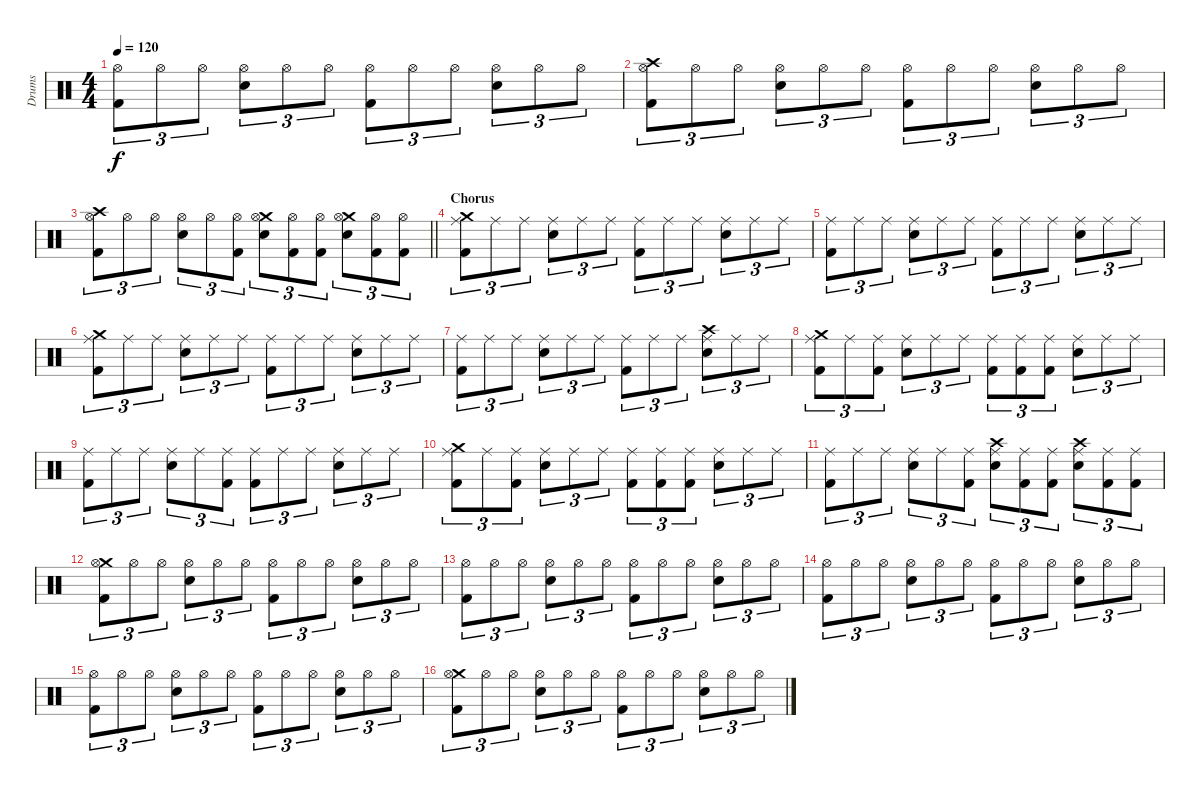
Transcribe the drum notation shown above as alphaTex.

\track ("Drums" "Drums") {instrument percussion}
\staff {score}
\articulation defaults
\ts (4 4)
\tempo 120
\clef neutral
\ks c
("Hi-Hat (open)" "Kick (hit) 2").8{tu (3 2) dy f} "Hi-Hat (open)".8{tu (3 2)} "Hi-Hat (open)".8{tu (3 2)} ("Hi-Hat (open)" "Snare (hit) 2").8{tu (3 2)} "Hi-Hat (open)".8{tu (3 2)} "Hi-Hat (open)".8{tu (3 2)} ("Hi-Hat (open)" "Kick (hit) 2").8{tu (3 2)} "Hi-Hat (open)".8{tu (3 2)} "Hi-Hat (open)".8{tu (3 2)} ("Hi-Hat (open)" "Snare (hit) 2").8{tu (3 2)} "Hi-Hat (open)".8{tu (3 2)} "Hi-Hat (open)".8{tu (3 2)} |
("Crash high (hit)" "Hi-Hat (open)" "Kick (hit) 2").8{tu (3 2)} "Hi-Hat (open)".8{tu (3 2)} "Hi-Hat (open)".8{tu (3 2)} ("Hi-Hat (open)" "Snare (hit) 2").8{tu (3 2)} "Hi-Hat (open)".8{tu (3 2)} "Hi-Hat (open)".8{tu (3 2)} ("Hi-Hat (open)" "Kick (hit) 2").8{tu (3 2)} "Hi-Hat (open)".8{tu (3 2)} "Hi-Hat (open)".8{tu (3 2)} ("Hi-Hat (open)" "Snare (hit) 2").8{tu (3 2)} "Hi-Hat (open)".8{tu (3 2)} "Hi-Hat (open)".8{tu (3 2)} |
\barLineRight lightlight
("Crash high (hit)" "Hi-Hat (open)" "Kick (hit) 2").8{tu (3 2)} "Hi-Hat (open)".8{tu (3 2)} "Hi-Hat (open)".8{tu (3 2)} ("Hi-Hat (open)" "Snare (hit) 2").8{tu (3 2)} "Hi-Hat (open)".8{tu (3 2)} ("Hi-Hat (open)" "Kick (hit) 2").8{tu (3 2)} ("Crash medium (hit)" "Hi-Hat (open)" "Snare (hit) 2").8{tu (3 2)} ("Hi-Hat (open)" "Kick (hit) 2").8{tu (3 2)} ("Hi-Hat (open)" "Kick (hit) 2").8{tu (3 2)} ("Crash medium (hit)" "Hi-Hat (open)" "Snare (hit) 2").8{tu (3 2)} ("Hi-Hat (open)" "Kick (hit) 2").8{tu (3 2)} ("Hi-Hat (open)" "Kick (hit) 2").8{tu (3 2)} |
\section ("" "Chorus")
("Crash medium (hit)" "Ride (middle)" "Kick (hit) 2").8{tu (3 2)} "Ride (middle)".8{tu (3 2)} "Ride (middle)".8{tu (3 2)} ("Ride (middle)" "Snare (hit) 2").8{tu (3 2)} "Ride (middle)".8{tu (3 2)} "Ride (middle)".8{tu (3 2)} ("Ride (middle)" "Kick (hit) 2").8{tu (3 2)} "Ride (middle)".8{tu (3 2)} "Ride (middle)".8{tu (3 2)} ("Ride (middle)" "Snare (hit) 2").8{tu (3 2)} "Ride (middle)".8{tu (3 2)} "Ride (middle)".8{tu (3 2)} |
("Ride (middle)" "Kick (hit) 2").8{tu (3 2)} "Ride (middle)".8{tu (3 2)} "Ride (middle)".8{tu (3 2)} ("Ride (middle)" "Snare (hit) 2").8{tu (3 2)} "Ride (middle)".8{tu (3 2)} "Ride (middle)".8{tu (3 2)} ("Ride (middle)" "Kick (hit) 2").8{tu (3 2)} "Ride (middle)".8{tu (3 2)} "Ride (middle)".8{tu (3 2)} ("Ride (middle)" "Snare (hit) 2").8{tu (3 2)} "Ride (middle)".8{tu (3 2)} "Ride (middle)".8{tu (3 2)} |
("Crash medium (hit)" "Ride (middle)" "Kick (hit) 2").8{tu (3 2)} "Ride (middle)".8{tu (3 2)} "Ride (middle)".8{tu (3 2)} ("Ride (middle)" "Snare (hit) 2").8{tu (3 2)} "Ride (middle)".8{tu (3 2)} "Ride (middle)".8{tu (3 2)} ("Ride (middle)" "Kick (hit) 2").8{tu (3 2)} "Ride (middle)".8{tu (3 2)} "Ride (middle)".8{tu (3 2)} ("Ride (middle)" "Snare (hit) 2").8{tu (3 2)} "Ride (middle)".8{tu (3 2)} "Ride (middle)".8{tu (3 2)} |
("Ride (middle)" "Kick (hit) 2").8{tu (3 2)} "Ride (middle)".8{tu (3 2)} "Ride (middle)".8{tu (3 2)} ("Ride (middle)" "Snare (hit) 2").8{tu (3 2)} "Ride (middle)".8{tu (3 2)} "Ride (middle)".8{tu (3 2)} ("Ride (middle)" "Kick (hit) 2").8{tu (3 2)} "Ride (middle)".8{tu (3 2)} "Ride (middle)".8{tu (3 2)} ("Crash high (hit)" "Ride (middle)" "Snare (hit) 2").8{tu (3 2)} "Ride (middle)".8{tu (3 2)} "Ride (middle)".8{tu (3 2)} |
("Crash medium (hit)" "Ride (middle)" "Kick (hit) 2").8{tu (3 2)} "Ride (middle)".8{tu (3 2)} ("Ride (middle)" "Kick (hit) 2").8{tu (3 2)} ("Ride (middle)" "Snare (hit) 2").8{tu (3 2)} "Ride (middle)".8{tu (3 2)} "Ride (middle)".8{tu (3 2)} ("Ride (middle)" "Kick (hit) 2").8{tu (3 2)} ("Ride (middle)" "Kick (hit) 2").8{tu (3 2)} ("Ride (middle)" "Kick (hit) 2").8{tu (3 2)} ("Ride (middle)" "Snare (hit) 2").8{tu (3 2)} "Ride (middle)".8{tu (3 2)} "Ride (middle)".8{tu (3 2)} |
("Ride (middle)" "Kick (hit) 2").8{tu (3 2)} "Ride (middle)".8{tu (3 2)} "Ride (middle)".8{tu (3 2)} ("Ride (middle)" "Snare (hit) 2").8{tu (3 2)} "Ride (middle)".8{tu (3 2)} ("Ride (middle)" "Kick (hit) 2").8{tu (3 2)} ("Ride (middle)" "Kick (hit) 2").8{tu (3 2)} "Ride (middle)".8{tu (3 2)} "Ride (middle)".8{tu (3 2)} ("Ride (middle)" "Snare (hit) 2").8{tu (3 2)} "Ride (middle)".8{tu (3 2)} "Ride (middle)".8{tu (3 2)} |
("Crash medium (hit)" "Ride (middle)" "Kick (hit) 2").8{tu (3 2)} "Ride (middle)".8{tu (3 2)} ("Ride (middle)" "Kick (hit) 2").8{tu (3 2)} ("Ride (middle)" "Snare (hit) 2").8{tu (3 2)} "Ride (middle)".8{tu (3 2)} "Ride (middle)".8{tu (3 2)} ("Ride (middle)" "Kick (hit) 2").8{tu (3 2)} ("Ride (middle)" "Kick (hit) 2").8{tu (3 2)} ("Ride (middle)" "Kick (hit) 2").8{tu (3 2)} ("Ride (middle)" "Snare (hit) 2").8{tu (3 2)} "Ride (middle)".8{tu (3 2)} "Ride (middle)".8{tu (3 2)} |
("Ride (middle)" "Kick (hit) 2").8{tu (3 2)} "Ride (middle)".8{tu (3 2)} "Ride (middle)".8{tu (3 2)} ("Ride (middle)" "Snare (hit) 2").8{tu (3 2)} "Ride (middle)".8{tu (3 2)} ("Ride (middle)" "Kick (hit) 2").8{tu (3 2)} ("Crash high (hit)" "Ride (middle)" "Snare (hit) 2").8{tu (3 2)} ("Ride (middle)" "Kick (hit) 2").8{tu (3 2)} ("Ride (middle)" "Kick (hit) 2").8{tu (3 2)} ("Crash high (hit)" "Ride (middle)" "Snare (hit) 2").8{tu (3 2)} ("Ride (middle)" "Kick (hit) 2").8{tu (3 2)} ("Ride (middle)" "Kick (hit) 2").8{tu (3 2)} |
("Crash medium (hit)" "Hi-Hat (open)" "Kick (hit) 2").8{tu (3 2)} "Hi-Hat (open)".8{tu (3 2)} "Hi-Hat (open)".8{tu (3 2)} ("Hi-Hat (open)" "Snare (hit) 2").8{tu (3 2)} "Hi-Hat (open)".8{tu (3 2)} "Hi-Hat (open)".8{tu (3 2)} ("Hi-Hat (open)" "Kick (hit) 2").8{tu (3 2)} "Hi-Hat (open)".8{tu (3 2)} "Hi-Hat (open)".8{tu (3 2)} ("Hi-Hat (open)" "Snare (hit) 2").8{tu (3 2)} "Hi-Hat (open)".8{tu (3 2)} "Hi-Hat (open)".8{tu (3 2)} |
("Hi-Hat (open)" "Kick (hit) 2").8{tu (3 2)} "Hi-Hat (open)".8{tu (3 2)} "Hi-Hat (open)".8{tu (3 2)} ("Hi-Hat (open)" "Snare (hit) 2").8{tu (3 2)} "Hi-Hat (open)".8{tu (3 2)} "Hi-Hat (open)".8{tu (3 2)} ("Hi-Hat (open)" "Kick (hit) 2").8{tu (3 2)} "Hi-Hat (open)".8{tu (3 2)} "Hi-Hat (open)".8{tu (3 2)} ("Hi-Hat (open)" "Snare (hit) 2").8{tu (3 2)} "Hi-Hat (open)".8{tu (3 2)} "Hi-Hat (open)".8{tu (3 2)} |
("Hi-Hat (open)" "Kick (hit) 2").8{tu (3 2)} "Hi-Hat (open)".8{tu (3 2)} "Hi-Hat (open)".8{tu (3 2)} ("Hi-Hat (open)" "Snare (hit) 2").8{tu (3 2)} "Hi-Hat (open)".8{tu (3 2)} "Hi-Hat (open)".8{tu (3 2)} ("Hi-Hat (open)" "Kick (hit) 2").8{tu (3 2)} "Hi-Hat (open)".8{tu (3 2)} "Hi-Hat (open)".8{tu (3 2)} ("Hi-Hat (open)" "Snare (hit) 2").8{tu (3 2)} "Hi-Hat (open)".8{tu (3 2)} "Hi-Hat (open)".8{tu (3 2)} |
("Hi-Hat (open)" "Kick (hit) 2").8{tu (3 2)} "Hi-Hat (open)".8{tu (3 2)} "Hi-Hat (open)".8{tu (3 2)} ("Hi-Hat (open)" "Snare (hit) 2").8{tu (3 2)} "Hi-Hat (open)".8{tu (3 2)} "Hi-Hat (open)".8{tu (3 2)} ("Hi-Hat (open)" "Kick (hit) 2").8{tu (3 2)} "Hi-Hat (open)".8{tu (3 2)} "Hi-Hat (open)".8{tu (3 2)} ("Hi-Hat (open)" "Snare (hit) 2").8{tu (3 2)} "Hi-Hat (open)".8{tu (3 2)} "Hi-Hat (open)".8{tu (3 2)} |
("Crash medium (hit)" "Hi-Hat (open)" "Kick (hit) 2").8{tu (3 2)} "Hi-Hat (open)".8{tu (3 2)} "Hi-Hat (open)".8{tu (3 2)} ("Hi-Hat (open)" "Snare (hit) 2").8{tu (3 2)} "Hi-Hat (open)".8{tu (3 2)} "Hi-Hat (open)".8{tu (3 2)} ("Hi-Hat (open)" "Kick (hit) 2").8{tu (3 2)} "Hi-Hat (open)".8{tu (3 2)} "Hi-Hat (open)".8{tu (3 2)} ("Hi-Hat (open)" "Snare (hit) 2").8{tu (3 2)} "Hi-Hat (open)".8{tu (3 2)} "Hi-Hat (open)".8{tu (3 2)}
